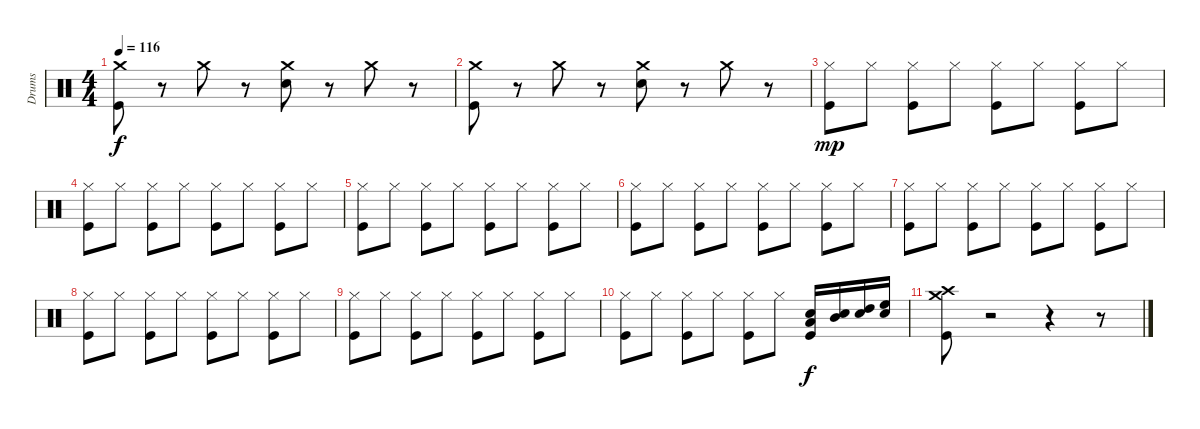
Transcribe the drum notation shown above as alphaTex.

\track ("Drums" "Drums") {instrument percussion}
\staff {score}
\articulation defaults
\ts (4 4)
\tempo 116
\clef neutral
\ks c
("Kick (hit)" "Crash medium (hit)").8{dy f} r.8 "Crash medium (hit)".8 r.8 ("Electric Snare (hit)" "Crash medium (hit)").8 r.8 "Crash medium (hit)".8 r.8 |
("Kick (hit)" "Crash medium (hit)").8 r.8 "Crash medium (hit)".8 r.8 ("Crash medium (hit)" "Electric Snare (hit)").8 r.8 "Crash medium (hit)".8 r.8 |
("Hi-Hat (closed)" "Kick (hit)").8{dy mp} "Hi-Hat (closed)".8 ("Kick (hit)" "Hi-Hat (closed)").8 "Hi-Hat (closed)".8 ("Kick (hit)" "Hi-Hat (closed)").8 "Hi-Hat (closed)".8 ("Kick (hit)" "Hi-Hat (closed)").8 "Hi-Hat (closed)".8 |
("Hi-Hat (closed)" "Kick (hit)").8 "Hi-Hat (closed)".8 ("Kick (hit)" "Hi-Hat (closed)").8 "Hi-Hat (closed)".8 ("Kick (hit)" "Hi-Hat (closed)").8 "Hi-Hat (closed)".8 ("Kick (hit)" "Hi-Hat (closed)").8 "Hi-Hat (closed)".8 |
("Hi-Hat (closed)" "Kick (hit)").8 "Hi-Hat (closed)".8 ("Kick (hit)" "Hi-Hat (closed)").8 "Hi-Hat (closed)".8 ("Kick (hit)" "Hi-Hat (closed)").8 "Hi-Hat (closed)".8 ("Kick (hit)" "Hi-Hat (closed)").8 "Hi-Hat (closed)".8 |
("Hi-Hat (closed)" "Kick (hit)").8 "Hi-Hat (closed)".8 ("Kick (hit)" "Hi-Hat (closed)").8 "Hi-Hat (closed)".8 ("Kick (hit)" "Hi-Hat (closed)").8 "Hi-Hat (closed)".8 ("Kick (hit)" "Hi-Hat (closed)").8 "Hi-Hat (closed)".8 |
("Hi-Hat (closed)" "Kick (hit)").8 "Hi-Hat (closed)".8 ("Kick (hit)" "Hi-Hat (closed)").8 "Hi-Hat (closed)".8 ("Kick (hit)" "Hi-Hat (closed)").8 "Hi-Hat (closed)".8 ("Kick (hit)" "Hi-Hat (closed)").8 "Hi-Hat (closed)".8 |
("Hi-Hat (closed)" "Kick (hit)").8 "Hi-Hat (closed)".8 ("Kick (hit)" "Hi-Hat (closed)").8 "Hi-Hat (closed)".8 ("Kick (hit)" "Hi-Hat (closed)").8 "Hi-Hat (closed)".8 ("Kick (hit)" "Hi-Hat (closed)").8 "Hi-Hat (closed)".8 |
("Hi-Hat (closed)" "Kick (hit)").8 "Hi-Hat (closed)".8 ("Kick (hit)" "Hi-Hat (closed)").8 "Hi-Hat (closed)".8 ("Kick (hit)" "Hi-Hat (closed)").8 "Hi-Hat (closed)".8 ("Kick (hit)" "Hi-Hat (closed)").8 "Hi-Hat (closed)".8 |
("Hi-Hat (closed)" "Kick (hit)").8 "Hi-Hat (closed)".8 ("Kick (hit)" "Hi-Hat (closed)").8 "Hi-Hat (closed)".8 ("Kick (hit)" "Hi-Hat (closed)").8 "Hi-Hat (closed)".8 ("Low Tom (hit)" "Electric Snare (hit)" "Kick (hit)").16{dy f} ("Mid Tom (hit)" "Electric Snare (hit)").16 ("High Tom (hit)" "Electric Snare (hit)").16 ("High Floor Tom (hit)" "Electric Snare (hit)").16 |
("Kick (hit)" "Crash medium (hit)" "Crash high (hit)").8 r.2 r.4 r.8
